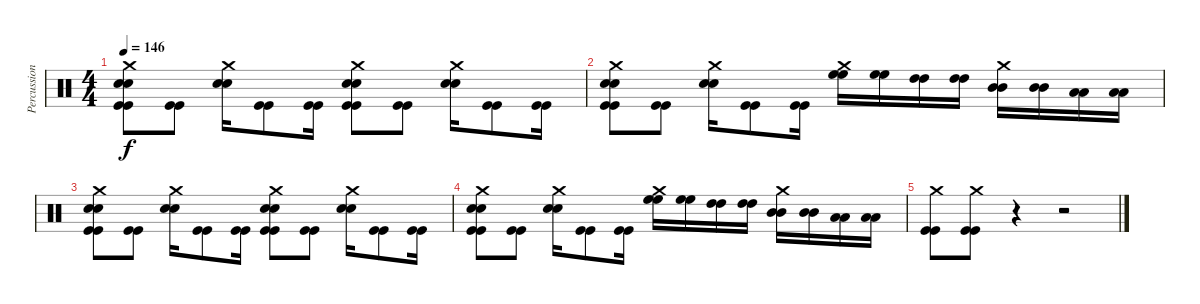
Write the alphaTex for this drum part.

\track ("Percussion" "Percussion") {instrument percussion}
\staff {score}
\articulation defaults
\ts (4 4)
\tempo 146
\clef neutral
\ks c
("Crash medium (hit)" "Snare (hit) 2" "Snare (hit) 2" "Kick (hit)" "Kick (hit)").8{dy f} ("Kick (hit)" "Kick (hit)").8 ("Crash medium (hit)" "Snare (hit) 2" "Snare (hit) 2").16 ("Kick (hit)" "Kick (hit)").8 ("Kick (hit)" "Kick (hit)").16 ("Crash medium (hit)" "Snare (hit) 2" "Snare (hit) 2" "Kick (hit)" "Kick (hit)").8 ("Kick (hit)" "Kick (hit)").8 ("Crash medium (hit)" "Snare (hit) 2" "Snare (hit) 2").16 ("Kick (hit)" "Kick (hit)").8 ("Kick (hit)" "Kick (hit)").16 |
("Crash medium (hit)" "Snare (hit) 2" "Snare (hit) 2" "Kick (hit)" "Kick (hit)").8 ("Kick (hit)" "Kick (hit)").8 ("Crash medium (hit)" "Snare (hit) 2" "Snare (hit) 2").16 ("Kick (hit)" "Kick (hit)").8 ("Kick (hit)" "Kick (hit)").16 ("Crash medium (hit)" "High Floor Tom (hit)" "High Floor Tom (hit)").16 ("High Floor Tom (hit)" "High Floor Tom (hit)").16 ("High Tom (hit)" "High Tom (hit)").16 ("High Tom (hit)" "High Tom (hit)").16 ("Crash medium (hit)" "Mid Tom (hit)" "Mid Tom (hit)").16 ("Mid Tom (hit)" "Mid Tom (hit)").16 ("Low Tom (hit)" "Low Tom (hit)").16 ("Low Tom (hit)" "Low Tom (hit)").16 |
("Crash medium (hit)" "Snare (hit) 2" "Snare (hit) 2" "Kick (hit)" "Kick (hit)").8 ("Kick (hit)" "Kick (hit)").8 ("Crash medium (hit)" "Snare (hit) 2" "Snare (hit) 2").16 ("Kick (hit)" "Kick (hit)").8 ("Kick (hit)" "Kick (hit)").16 ("Crash medium (hit)" "Snare (hit) 2" "Snare (hit) 2" "Kick (hit)" "Kick (hit)").8 ("Kick (hit)" "Kick (hit)").8 ("Crash medium (hit)" "Snare (hit) 2" "Snare (hit) 2").16 ("Kick (hit)" "Kick (hit)").8 ("Kick (hit)" "Kick (hit)").16 |
("Crash medium (hit)" "Snare (hit) 2" "Snare (hit) 2" "Kick (hit)" "Kick (hit)").8 ("Kick (hit)" "Kick (hit)").8 ("Crash medium (hit)" "Snare (hit) 2" "Snare (hit) 2").16 ("Kick (hit)" "Kick (hit)").8 ("Kick (hit)" "Kick (hit)").16 ("Crash medium (hit)" "High Floor Tom (hit)" "High Floor Tom (hit)").16 ("High Floor Tom (hit)" "High Floor Tom (hit)").16 ("High Tom (hit)" "High Tom (hit)").16 ("High Tom (hit)" "High Tom (hit)").16 ("Crash medium (hit)" "Mid Tom (hit)" "Mid Tom (hit)").16 ("Mid Tom (hit)" "Mid Tom (hit)").16 ("Low Tom (hit)" "Low Tom (hit)").16 ("Low Tom (hit)" "Low Tom (hit)").16 |
("Crash medium (hit)" "Kick (hit)" "Kick (hit)").8 ("Crash medium (hit)" "Kick (hit)" "Kick (hit)").8 r.4 r.2
